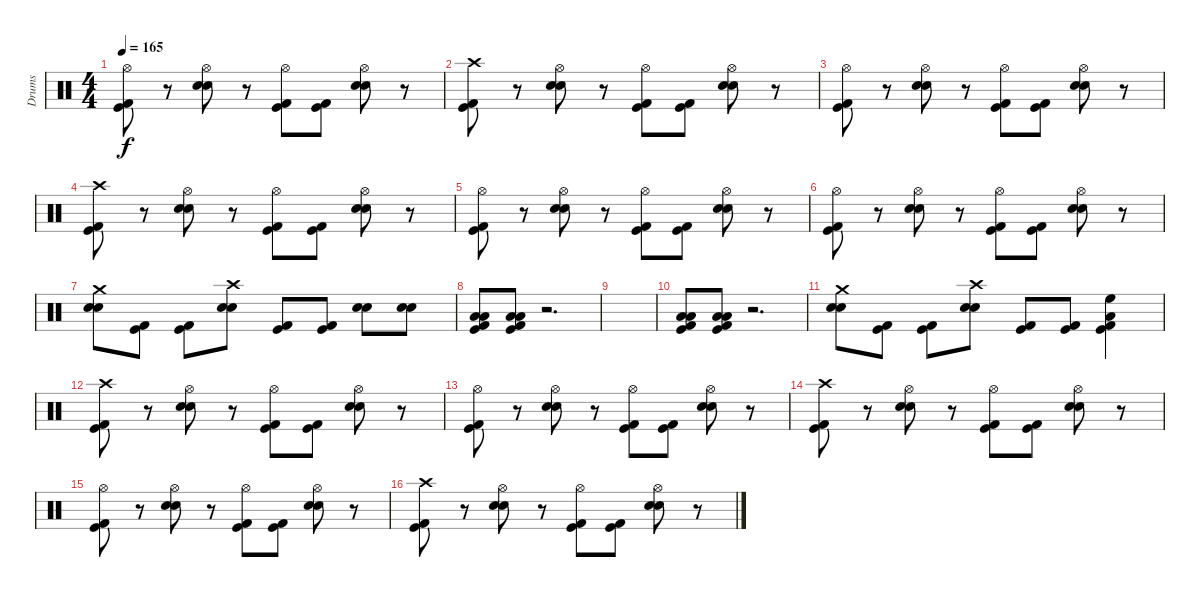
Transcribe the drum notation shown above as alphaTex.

\track ("Drums" "Drums") {instrument percussion}
\staff {score}
\articulation defaults
\ts (4 4)
\tempo 165
\clef neutral
\ks c
("Hi-Hat (open)" "Kick (hit) 2" "Kick (hit)").8{dy f} r.8 ("Hi-Hat (open)" "Electric Snare (hit)" "Snare (hit) 2").8 r.8 ("Hi-Hat (open)" "Kick (hit) 2" "Kick (hit)").8 ("Kick (hit) 2" "Kick (hit)").8 ("Hi-Hat (open)" "Electric Snare (hit)" "Snare (hit) 2").8 r.8 |
("Crash high (hit)" "Kick (hit) 2" "Kick (hit)").8 r.8 ("Hi-Hat (open)" "Electric Snare (hit)" "Snare (hit) 2").8 r.8 ("Hi-Hat (open)" "Kick (hit) 2" "Kick (hit)").8 ("Kick (hit) 2" "Kick (hit)").8 ("Hi-Hat (open)" "Electric Snare (hit)" "Snare (hit) 2").8 r.8 |
("Hi-Hat (open)" "Kick (hit) 2" "Kick (hit)").8 r.8 ("Hi-Hat (open)" "Electric Snare (hit)" "Snare (hit) 2").8 r.8 ("Hi-Hat (open)" "Kick (hit) 2" "Kick (hit)").8 ("Kick (hit) 2" "Kick (hit)").8 ("Hi-Hat (open)" "Electric Snare (hit)" "Snare (hit) 2").8 r.8 |
("Crash high (hit)" "Kick (hit) 2" "Kick (hit)").8 r.8 ("Hi-Hat (open)" "Electric Snare (hit)" "Snare (hit) 2").8 r.8 ("Hi-Hat (open)" "Kick (hit) 2" "Kick (hit)").8 ("Kick (hit) 2" "Kick (hit)").8 ("Hi-Hat (open)" "Electric Snare (hit)" "Snare (hit) 2").8 r.8 |
("Hi-Hat (open)" "Kick (hit) 2" "Kick (hit)").8 r.8 ("Hi-Hat (open)" "Electric Snare (hit)" "Snare (hit) 2").8 r.8 ("Hi-Hat (open)" "Kick (hit) 2" "Kick (hit)").8 ("Kick (hit) 2" "Kick (hit)").8 ("Hi-Hat (open)" "Electric Snare (hit)" "Snare (hit) 2").8 r.8 |
("Hi-Hat (open)" "Kick (hit) 2" "Kick (hit)").8 r.8 ("Hi-Hat (open)" "Electric Snare (hit)" "Snare (hit) 2").8 r.8 ("Hi-Hat (open)" "Kick (hit) 2" "Kick (hit)").8 ("Kick (hit) 2" "Kick (hit)").8 ("Hi-Hat (open)" "Electric Snare (hit)" "Snare (hit) 2").8 r.8 |
("Electric Snare (hit)" "Snare (hit) 2" "Crash medium (hit)").8 ("Kick (hit) 2" "Kick (hit)").8 ("Kick (hit) 2" "Kick (hit)").8 ("Electric Snare (hit)" "Snare (hit) 2" "Crash high (hit)").8 ("Kick (hit) 2" "Kick (hit)").8 ("Kick (hit) 2" "Kick (hit)").8 ("Electric Snare (hit)" "Snare (hit) 2").8 ("Electric Snare (hit)" "Snare (hit) 2").8 |
("Kick (hit) 2" "Kick (hit)" "Low Floor Tom (hit)" "Low Tom (hit)").8 ("Kick (hit) 2" "Kick (hit)" "Low Floor Tom (hit)" "Low Tom (hit)").8 r.2{d} |
|
("Kick (hit) 2" "Kick (hit)" "Low Floor Tom (hit)" "Low Tom (hit)").8 ("Kick (hit) 2" "Kick (hit)" "Low Floor Tom (hit)" "Low Tom (hit)").8 r.2{d} |
("Electric Snare (hit)" "Snare (hit) 2" "Crash medium (hit)").8 ("Kick (hit) 2" "Kick (hit)").8 ("Kick (hit) 2" "Kick (hit)").8 ("Electric Snare (hit)" "Snare (hit) 2" "Crash high (hit)").8 ("Kick (hit) 2" "Kick (hit)").8 ("Kick (hit) 2" "Kick (hit)").8 ("Kick (hit) 2" "Kick (hit)" "High Floor Tom (hit)" "Low Tom (hit)").4 |
("Crash high (hit)" "Kick (hit) 2" "Kick (hit)").8 r.8 ("Hi-Hat (open)" "Electric Snare (hit)" "Snare (hit) 2").8 r.8 ("Hi-Hat (open)" "Kick (hit) 2" "Kick (hit)").8 ("Kick (hit) 2" "Kick (hit)").8 ("Hi-Hat (open)" "Electric Snare (hit)" "Snare (hit) 2").8 r.8 |
("Hi-Hat (open)" "Kick (hit) 2" "Kick (hit)").8 r.8 ("Hi-Hat (open)" "Electric Snare (hit)" "Snare (hit) 2").8 r.8 ("Hi-Hat (open)" "Kick (hit) 2" "Kick (hit)").8 ("Kick (hit) 2" "Kick (hit)").8 ("Hi-Hat (open)" "Electric Snare (hit)" "Snare (hit) 2").8 r.8 |
("Crash high (hit)" "Kick (hit) 2" "Kick (hit)").8 r.8 ("Hi-Hat (open)" "Electric Snare (hit)" "Snare (hit) 2").8 r.8 ("Hi-Hat (open)" "Kick (hit) 2" "Kick (hit)").8 ("Kick (hit) 2" "Kick (hit)").8 ("Hi-Hat (open)" "Electric Snare (hit)" "Snare (hit) 2").8 r.8 |
("Hi-Hat (open)" "Kick (hit) 2" "Kick (hit)").8 r.8 ("Hi-Hat (open)" "Electric Snare (hit)" "Snare (hit) 2").8 r.8 ("Hi-Hat (open)" "Kick (hit) 2" "Kick (hit)").8 ("Kick (hit) 2" "Kick (hit)").8 ("Hi-Hat (open)" "Electric Snare (hit)" "Snare (hit) 2").8 r.8 |
("Crash high (hit)" "Kick (hit) 2" "Kick (hit)").8 r.8 ("Hi-Hat (open)" "Electric Snare (hit)" "Snare (hit) 2").8 r.8 ("Hi-Hat (open)" "Kick (hit) 2" "Kick (hit)").8 ("Kick (hit) 2" "Kick (hit)").8 ("Hi-Hat (open)" "Electric Snare (hit)" "Snare (hit) 2").8 r.8
